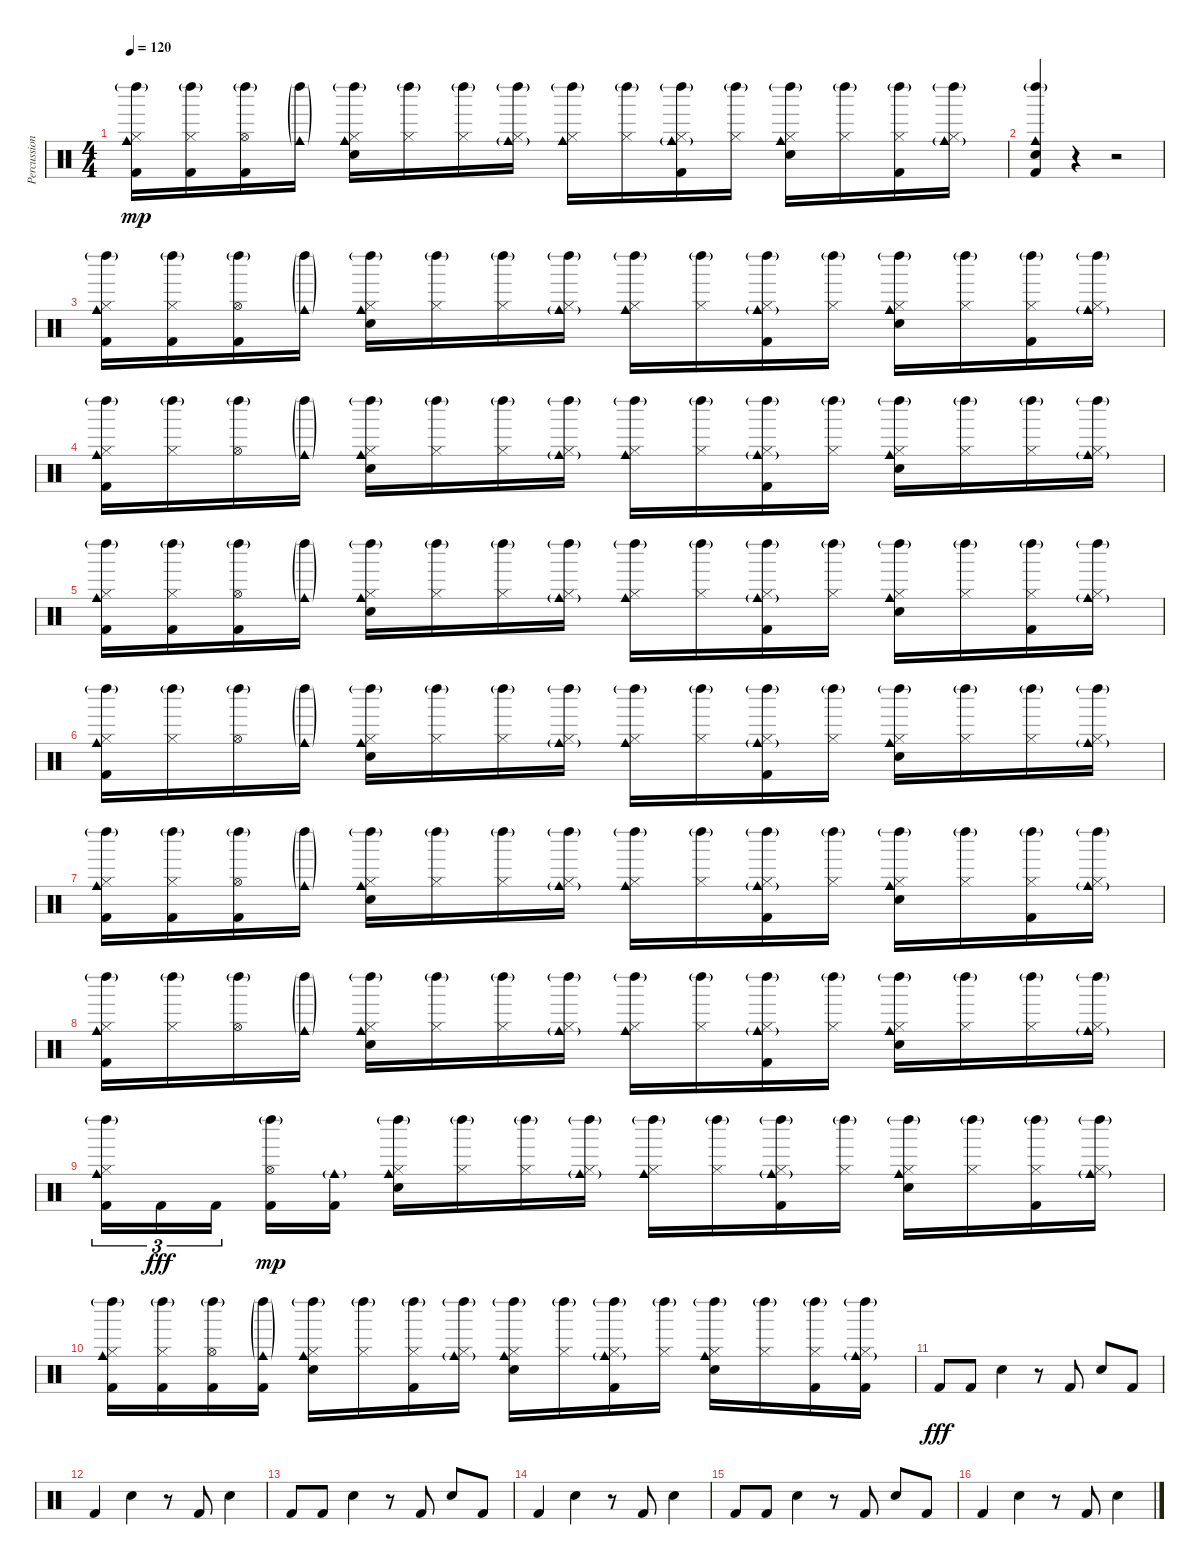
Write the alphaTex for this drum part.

\track ("Percussion" "Percussion") {instrument percussion}
\staff {score}
\articulation defaults
\ts (4 4)
\tempo 120
\clef neutral
\ks c
("Kick (hit) 2" "Hi-Hat (closed)" "Cowbell medium (hit)" "Left Maraca (hit)"{g}).16{dy mp} ("Kick (hit) 2" "Hi-Hat (closed)" "Left Maraca (hit)"{g}).16 ("Kick (hit) 2" "Hi-Hat (open)" "Left Maraca (hit)"{g}).16 ("Cowbell medium (hit)"{g} "Left Maraca (hit)"{g}).16 ("Electric Snare (hit)" "Hi-Hat (closed)" "Cowbell medium (hit)" "Left Maraca (hit)"{g}).16 ("Hi-Hat (closed)" "Left Maraca (hit)"{g}).16 ("Hi-Hat (closed)" "Left Maraca (hit)"{g}).16 ("Hi-Hat (closed)" "Cowbell medium (hit)"{g} "Left Maraca (hit)"{g}).16 ("Hi-Hat (closed)" "Cowbell medium (hit)" "Left Maraca (hit)"{g}).16 ("Hi-Hat (closed)" "Left Maraca (hit)"{g}).16 ("Kick (hit) 2" "Hi-Hat (closed)" "Cowbell medium (hit)"{g} "Left Maraca (hit)"{g}).16 ("Hi-Hat (closed)" "Left Maraca (hit)"{g}).16 ("Electric Snare (hit)" "Hi-Hat (closed)" "Cowbell medium (hit)" "Left Maraca (hit)"{g}).16 ("Hi-Hat (closed)" "Left Maraca (hit)"{g}).16 ("Kick (hit) 2" "Hi-Hat (closed)" "Left Maraca (hit)"{g}).16 ("Hi-Hat (closed)" "Cowbell medium (hit)"{g} "Left Maraca (hit)"{g}).16 |
("Kick (hit) 2" "Electric Snare (hit)" "Cowbell medium (hit)" "Left Maraca (hit)"{g}).4 r.4 r.2 |
("Kick (hit) 2" "Hi-Hat (closed)" "Cowbell medium (hit)" "Left Maraca (hit)"{g}).16 ("Kick (hit) 2" "Hi-Hat (closed)" "Left Maraca (hit)"{g}).16 ("Kick (hit) 2" "Hi-Hat (open)" "Left Maraca (hit)"{g}).16 ("Cowbell medium (hit)"{g} "Left Maraca (hit)"{g}).16 ("Electric Snare (hit)" "Hi-Hat (closed)" "Cowbell medium (hit)" "Left Maraca (hit)"{g}).16 ("Hi-Hat (closed)" "Left Maraca (hit)"{g}).16 ("Hi-Hat (closed)" "Left Maraca (hit)"{g}).16 ("Hi-Hat (closed)" "Cowbell medium (hit)"{g} "Left Maraca (hit)"{g}).16 ("Hi-Hat (closed)" "Cowbell medium (hit)" "Left Maraca (hit)"{g}).16 ("Hi-Hat (closed)" "Left Maraca (hit)"{g}).16 ("Kick (hit) 2" "Hi-Hat (closed)" "Cowbell medium (hit)"{g} "Left Maraca (hit)"{g}).16 ("Hi-Hat (closed)" "Left Maraca (hit)"{g}).16 ("Electric Snare (hit)" "Hi-Hat (closed)" "Cowbell medium (hit)" "Left Maraca (hit)"{g}).16 ("Hi-Hat (closed)" "Left Maraca (hit)"{g}).16 ("Kick (hit) 2" "Hi-Hat (closed)" "Left Maraca (hit)"{g}).16 ("Hi-Hat (closed)" "Cowbell medium (hit)"{g} "Left Maraca (hit)"{g}).16 |
("Kick (hit) 2" "Hi-Hat (closed)" "Cowbell medium (hit)" "Left Maraca (hit)"{g}).16 ("Hi-Hat (closed)" "Left Maraca (hit)"{g}).16 ("Hi-Hat (open)" "Left Maraca (hit)"{g}).16 ("Cowbell medium (hit)"{g} "Left Maraca (hit)"{g}).16 ("Electric Snare (hit)" "Hi-Hat (closed)" "Cowbell medium (hit)" "Left Maraca (hit)"{g}).16 ("Hi-Hat (closed)" "Left Maraca (hit)"{g}).16 ("Hi-Hat (closed)" "Left Maraca (hit)"{g}).16 ("Hi-Hat (closed)" "Cowbell medium (hit)"{g} "Left Maraca (hit)"{g}).16 ("Hi-Hat (closed)" "Cowbell medium (hit)" "Left Maraca (hit)"{g}).16 ("Hi-Hat (closed)" "Left Maraca (hit)"{g}).16 ("Kick (hit) 2" "Hi-Hat (closed)" "Cowbell medium (hit)"{g} "Left Maraca (hit)"{g}).16 ("Hi-Hat (closed)" "Left Maraca (hit)"{g}).16 ("Electric Snare (hit)" "Hi-Hat (closed)" "Cowbell medium (hit)" "Left Maraca (hit)"{g}).16 ("Hi-Hat (closed)" "Left Maraca (hit)"{g}).16 ("Hi-Hat (closed)" "Left Maraca (hit)"{g}).16 ("Hi-Hat (closed)" "Cowbell medium (hit)"{g} "Left Maraca (hit)"{g}).16 |
("Kick (hit) 2" "Hi-Hat (closed)" "Cowbell medium (hit)" "Left Maraca (hit)"{g}).16 ("Kick (hit) 2" "Hi-Hat (closed)" "Left Maraca (hit)"{g}).16 ("Kick (hit) 2" "Hi-Hat (open)" "Left Maraca (hit)"{g}).16 ("Cowbell medium (hit)"{g} "Left Maraca (hit)"{g}).16 ("Electric Snare (hit)" "Hi-Hat (closed)" "Cowbell medium (hit)" "Left Maraca (hit)"{g}).16 ("Hi-Hat (closed)" "Left Maraca (hit)"{g}).16 ("Hi-Hat (closed)" "Left Maraca (hit)"{g}).16 ("Hi-Hat (closed)" "Cowbell medium (hit)"{g} "Left Maraca (hit)"{g}).16 ("Hi-Hat (closed)" "Cowbell medium (hit)" "Left Maraca (hit)"{g}).16 ("Hi-Hat (closed)" "Left Maraca (hit)"{g}).16 ("Kick (hit) 2" "Hi-Hat (closed)" "Cowbell medium (hit)"{g} "Left Maraca (hit)"{g}).16 ("Hi-Hat (closed)" "Left Maraca (hit)"{g}).16 ("Electric Snare (hit)" "Hi-Hat (closed)" "Cowbell medium (hit)" "Left Maraca (hit)"{g}).16 ("Hi-Hat (closed)" "Left Maraca (hit)"{g}).16 ("Kick (hit) 2" "Hi-Hat (closed)" "Left Maraca (hit)"{g}).16 ("Hi-Hat (closed)" "Cowbell medium (hit)"{g} "Left Maraca (hit)"{g}).16 |
("Kick (hit) 2" "Hi-Hat (closed)" "Cowbell medium (hit)" "Left Maraca (hit)"{g}).16 ("Hi-Hat (closed)" "Left Maraca (hit)"{g}).16 ("Hi-Hat (open)" "Left Maraca (hit)"{g}).16 ("Cowbell medium (hit)"{g} "Left Maraca (hit)"{g}).16 ("Electric Snare (hit)" "Hi-Hat (closed)" "Cowbell medium (hit)" "Left Maraca (hit)"{g}).16 ("Hi-Hat (closed)" "Left Maraca (hit)"{g}).16 ("Hi-Hat (closed)" "Left Maraca (hit)"{g}).16 ("Hi-Hat (closed)" "Cowbell medium (hit)"{g} "Left Maraca (hit)"{g}).16 ("Hi-Hat (closed)" "Cowbell medium (hit)" "Left Maraca (hit)"{g}).16 ("Hi-Hat (closed)" "Left Maraca (hit)"{g}).16 ("Kick (hit) 2" "Hi-Hat (closed)" "Cowbell medium (hit)"{g} "Left Maraca (hit)"{g}).16 ("Hi-Hat (closed)" "Left Maraca (hit)"{g}).16 ("Electric Snare (hit)" "Hi-Hat (closed)" "Cowbell medium (hit)" "Left Maraca (hit)"{g}).16 ("Hi-Hat (closed)" "Left Maraca (hit)"{g}).16 ("Hi-Hat (closed)" "Left Maraca (hit)"{g}).16 ("Hi-Hat (closed)" "Cowbell medium (hit)"{g} "Left Maraca (hit)"{g}).16 |
("Kick (hit) 2" "Hi-Hat (closed)" "Cowbell medium (hit)" "Left Maraca (hit)"{g}).16 ("Kick (hit) 2" "Hi-Hat (closed)" "Left Maraca (hit)"{g}).16 ("Kick (hit) 2" "Hi-Hat (open)" "Left Maraca (hit)"{g}).16 ("Cowbell medium (hit)"{g} "Left Maraca (hit)"{g}).16 ("Electric Snare (hit)" "Hi-Hat (closed)" "Cowbell medium (hit)" "Left Maraca (hit)"{g}).16 ("Hi-Hat (closed)" "Left Maraca (hit)"{g}).16 ("Hi-Hat (closed)" "Left Maraca (hit)"{g}).16 ("Hi-Hat (closed)" "Cowbell medium (hit)"{g} "Left Maraca (hit)"{g}).16 ("Hi-Hat (closed)" "Cowbell medium (hit)" "Left Maraca (hit)"{g}).16 ("Hi-Hat (closed)" "Left Maraca (hit)"{g}).16 ("Kick (hit) 2" "Hi-Hat (closed)" "Cowbell medium (hit)"{g} "Left Maraca (hit)"{g}).16 ("Hi-Hat (closed)" "Left Maraca (hit)"{g}).16 ("Electric Snare (hit)" "Hi-Hat (closed)" "Cowbell medium (hit)" "Left Maraca (hit)"{g}).16 ("Hi-Hat (closed)" "Left Maraca (hit)"{g}).16 ("Kick (hit) 2" "Hi-Hat (closed)" "Left Maraca (hit)"{g}).16 ("Hi-Hat (closed)" "Cowbell medium (hit)"{g} "Left Maraca (hit)"{g}).16 |
("Kick (hit) 2" "Hi-Hat (closed)" "Cowbell medium (hit)" "Left Maraca (hit)"{g}).16 ("Hi-Hat (closed)" "Left Maraca (hit)"{g}).16 ("Hi-Hat (open)" "Left Maraca (hit)"{g}).16 ("Cowbell medium (hit)"{g} "Left Maraca (hit)"{g}).16 ("Electric Snare (hit)" "Hi-Hat (closed)" "Cowbell medium (hit)" "Left Maraca (hit)"{g}).16 ("Hi-Hat (closed)" "Left Maraca (hit)"{g}).16 ("Hi-Hat (closed)" "Left Maraca (hit)"{g}).16 ("Hi-Hat (closed)" "Cowbell medium (hit)"{g} "Left Maraca (hit)"{g}).16 ("Hi-Hat (closed)" "Cowbell medium (hit)" "Left Maraca (hit)"{g}).16 ("Hi-Hat (closed)" "Left Maraca (hit)"{g}).16 ("Kick (hit) 2" "Hi-Hat (closed)" "Cowbell medium (hit)"{g} "Left Maraca (hit)"{g}).16 ("Hi-Hat (closed)" "Left Maraca (hit)"{g}).16 ("Electric Snare (hit)" "Hi-Hat (closed)" "Cowbell medium (hit)" "Left Maraca (hit)"{g}).16 ("Hi-Hat (closed)" "Left Maraca (hit)"{g}).16 ("Hi-Hat (closed)" "Left Maraca (hit)"{g}).16 ("Hi-Hat (closed)" "Cowbell medium (hit)"{g} "Left Maraca (hit)"{g}).16 |
("Kick (hit) 2" "Hi-Hat (closed)" "Cowbell medium (hit)" "Left Maraca (hit)"{g}).16{tu (3 2)} "Kick (hit) 2".16{tu (3 2) dy fff} "Kick (hit) 2".16{tu (3 2)} ("Kick (hit) 2" "Hi-Hat (open)" "Left Maraca (hit)"{g}).16{dy mp} ("Kick (hit) 2" "Cowbell medium (hit)"{g}).16 ("Electric Snare (hit)" "Hi-Hat (closed)" "Cowbell medium (hit)" "Left Maraca (hit)"{g}).16 ("Hi-Hat (closed)" "Left Maraca (hit)"{g}).16 ("Hi-Hat (closed)" "Left Maraca (hit)"{g}).16 ("Hi-Hat (closed)" "Cowbell medium (hit)"{g} "Left Maraca (hit)"{g}).16 ("Hi-Hat (closed)" "Cowbell medium (hit)" "Left Maraca (hit)"{g}).16 ("Hi-Hat (closed)" "Left Maraca (hit)"{g}).16 ("Kick (hit) 2" "Hi-Hat (closed)" "Cowbell medium (hit)"{g} "Left Maraca (hit)"{g}).16 ("Hi-Hat (closed)" "Left Maraca (hit)"{g}).16 ("Electric Snare (hit)" "Hi-Hat (closed)" "Cowbell medium (hit)" "Left Maraca (hit)"{g}).16 ("Hi-Hat (closed)" "Left Maraca (hit)"{g}).16 ("Kick (hit) 2" "Hi-Hat (closed)" "Left Maraca (hit)"{g}).16 ("Hi-Hat (closed)" "Cowbell medium (hit)"{g} "Left Maraca (hit)"{g}).16 |
("Kick (hit) 2" "Hi-Hat (closed)" "Cowbell medium (hit)" "Left Maraca (hit)"{g}).16 ("Kick (hit) 2" "Hi-Hat (closed)" "Left Maraca (hit)"{g}).16 ("Kick (hit) 2" "Hi-Hat (open)" "Left Maraca (hit)"{g}).16 ("Kick (hit) 2" "Cowbell medium (hit)"{g} "Left Maraca (hit)"{g}).16 ("Electric Snare (hit)" "Hi-Hat (closed)" "Cowbell medium (hit)" "Left Maraca (hit)"{g}).16 ("Hi-Hat (closed)" "Left Maraca (hit)"{g}).16 ("Kick (hit) 2" "Hi-Hat (closed)" "Left Maraca (hit)"{g}).16 ("Hi-Hat (closed)" "Cowbell medium (hit)"{g} "Left Maraca (hit)"{g}).16 ("Electric Snare (hit)" "Hi-Hat (closed)" "Cowbell medium (hit)" "Left Maraca (hit)"{g}).16 ("Hi-Hat (closed)" "Left Maraca (hit)"{g}).16 ("Kick (hit) 2" "Hi-Hat (closed)" "Cowbell medium (hit)"{g} "Left Maraca (hit)"{g}).16 ("Hi-Hat (closed)" "Left Maraca (hit)"{g}).16 ("Electric Snare (hit)" "Hi-Hat (closed)" "Cowbell medium (hit)" "Left Maraca (hit)"{g}).16 ("Hi-Hat (closed)" "Left Maraca (hit)"{g}).16 ("Kick (hit) 2" "Hi-Hat (closed)" "Left Maraca (hit)"{g}).16 ("Kick (hit) 2" "Hi-Hat (closed)" "Cowbell medium (hit)"{g} "Left Maraca (hit)"{g}).16 |
"Kick (hit) 2".8{dy fff} "Kick (hit) 2".8 "Electric Snare (hit)".4 r.8 "Kick (hit) 2".8 "Electric Snare (hit)".8 "Kick (hit) 2".8 |
"Kick (hit) 2".4 "Electric Snare (hit)".4 r.8 "Kick (hit) 2".8 "Electric Snare (hit)".4 |
"Kick (hit) 2".8 "Kick (hit) 2".8 "Electric Snare (hit)".4 r.8 "Kick (hit) 2".8 "Electric Snare (hit)".8 "Kick (hit) 2".8 |
"Kick (hit) 2".4 "Electric Snare (hit)".4 r.8 "Kick (hit) 2".8 "Electric Snare (hit)".4 |
"Kick (hit) 2".8 "Kick (hit) 2".8 "Electric Snare (hit)".4 r.8 "Kick (hit) 2".8 "Electric Snare (hit)".8 "Kick (hit) 2".8 |
"Kick (hit) 2".4 "Electric Snare (hit)".4 r.8 "Kick (hit) 2".8 "Electric Snare (hit)".4
